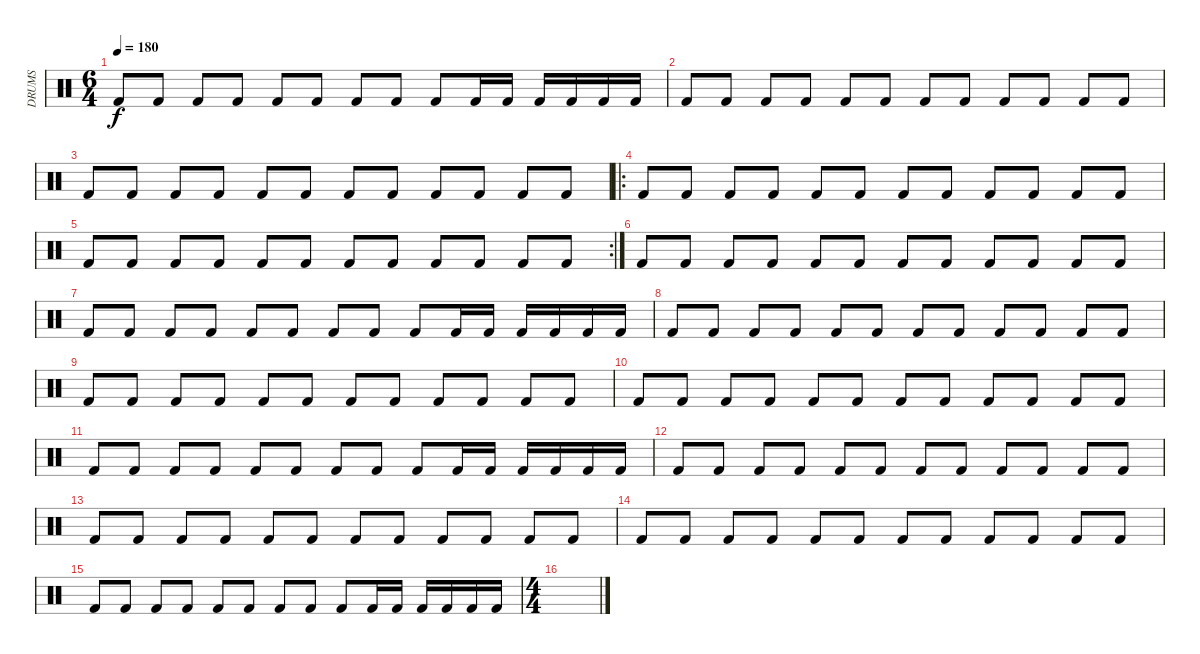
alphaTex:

\track ("DRUMS " "DRUMS ") {instrument percussion}
\staff {score}
\articulation defaults
\ts (6 4)
\tempo 180
\clef neutral
\ks c "Kick (hit) 2".8{dy f} "Kick (hit) 2".8 "Kick (hit) 2".8 "Kick (hit) 2".8 "Kick (hit) 2".8 "Kick (hit) 2".8 "Kick (hit) 2".8 "Kick (hit) 2".8 "Kick (hit) 2".8 "Kick (hit) 2".16 "Kick (hit) 2".16 "Kick (hit) 2".16 "Kick (hit) 2".16 "Kick (hit) 2".16 "Kick (hit) 2".16
|
"Kick (hit) 2".8 "Kick (hit) 2".8 "Kick (hit) 2".8 "Kick (hit) 2".8 "Kick (hit) 2".8 "Kick (hit) 2".8 "Kick (hit) 2".8 "Kick (hit) 2".8 "Kick (hit) 2".8 "Kick (hit) 2".8 "Kick (hit) 2".8 "Kick (hit) 2".8 |
"Kick (hit) 2".8 "Kick (hit) 2".8 "Kick (hit) 2".8 "Kick (hit) 2".8 "Kick (hit) 2".8 "Kick (hit) 2".8 "Kick (hit) 2".8 "Kick (hit) 2".8 "Kick (hit) 2".8 "Kick (hit) 2".8 "Kick (hit) 2".8 "Kick (hit) 2".8 |
\ro "Kick (hit) 2".8 "Kick (hit) 2".8 "Kick (hit) 2".8 "Kick (hit) 2".8 "Kick (hit) 2".8 "Kick (hit) 2".8 "Kick (hit) 2".8 "Kick (hit) 2".8 "Kick (hit) 2".8 "Kick (hit) 2".8 "Kick (hit) 2".8 "Kick (hit) 2".8
|
\rc 2 "Kick (hit) 2".8 "Kick (hit) 2".8 "Kick (hit) 2".8 "Kick (hit) 2".8 "Kick (hit) 2".8 "Kick (hit) 2".8 "Kick (hit) 2".8 "Kick (hit) 2".8 "Kick (hit) 2".8 "Kick (hit) 2".8 "Kick (hit) 2".8 "Kick (hit) 2".8
|
"Kick (hit) 2".8 "Kick (hit) 2".8 "Kick (hit) 2".8 "Kick (hit) 2".8 "Kick (hit) 2".8 "Kick (hit) 2".8 "Kick (hit) 2".8 "Kick (hit) 2".8 "Kick (hit) 2".8 "Kick (hit) 2".8 "Kick (hit) 2".8 "Kick (hit) 2".8 |
"Kick (hit) 2".8 "Kick (hit) 2".8 "Kick (hit) 2".8 "Kick (hit) 2".8 "Kick (hit) 2".8 "Kick (hit) 2".8 "Kick (hit) 2".8 "Kick (hit) 2".8 "Kick (hit) 2".8 "Kick (hit) 2".16 "Kick (hit) 2".16 "Kick (hit) 2".16 "Kick (hit) 2".16 "Kick (hit) 2".16 "Kick (hit) 2".16 |
"Kick (hit) 2".8 "Kick (hit) 2".8 "Kick (hit) 2".8 "Kick (hit) 2".8 "Kick (hit) 2".8 "Kick (hit) 2".8 "Kick (hit) 2".8 "Kick (hit) 2".8 "Kick (hit) 2".8 "Kick (hit) 2".8 "Kick (hit) 2".8 "Kick (hit) 2".8 |
"Kick (hit) 2".8 "Kick (hit) 2".8 "Kick (hit) 2".8 "Kick (hit) 2".8 "Kick (hit) 2".8 "Kick (hit) 2".8 "Kick (hit) 2".8 "Kick (hit) 2".8 "Kick (hit) 2".8 "Kick (hit) 2".8 "Kick (hit) 2".8 "Kick (hit) 2".8 |
"Kick (hit) 2".8 "Kick (hit) 2".8 "Kick (hit) 2".8 "Kick (hit) 2".8 "Kick (hit) 2".8 "Kick (hit) 2".8 "Kick (hit) 2".8 "Kick (hit) 2".8 "Kick (hit) 2".8 "Kick (hit) 2".8 "Kick (hit) 2".8 "Kick (hit) 2".8 |
"Kick (hit) 2".8 "Kick (hit) 2".8 "Kick (hit) 2".8 "Kick (hit) 2".8 "Kick (hit) 2".8 "Kick (hit) 2".8 "Kick (hit) 2".8 "Kick (hit) 2".8 "Kick (hit) 2".8 "Kick (hit) 2".16 "Kick (hit) 2".16 "Kick (hit) 2".16 "Kick (hit) 2".16 "Kick (hit) 2".16 "Kick (hit) 2".16 |
"Kick (hit) 2".8 "Kick (hit) 2".8 "Kick (hit) 2".8 "Kick (hit) 2".8 "Kick (hit) 2".8 "Kick (hit) 2".8 "Kick (hit) 2".8 "Kick (hit) 2".8 "Kick (hit) 2".8 "Kick (hit) 2".8 "Kick (hit) 2".8 "Kick (hit) 2".8 |
"Kick (hit) 2".8 "Kick (hit) 2".8 "Kick (hit) 2".8 "Kick (hit) 2".8 "Kick (hit) 2".8 "Kick (hit) 2".8 "Kick (hit) 2".8 "Kick (hit) 2".8 "Kick (hit) 2".8 "Kick (hit) 2".8 "Kick (hit) 2".8 "Kick (hit) 2".8 |
"Kick (hit) 2".8 "Kick (hit) 2".8 "Kick (hit) 2".8 "Kick (hit) 2".8 "Kick (hit) 2".8 "Kick (hit) 2".8 "Kick (hit) 2".8 "Kick (hit) 2".8 "Kick (hit) 2".8 "Kick (hit) 2".8 "Kick (hit) 2".8 "Kick (hit) 2".8 |
"Kick (hit) 2".8 "Kick (hit) 2".8 "Kick (hit) 2".8 "Kick (hit) 2".8 "Kick (hit) 2".8 "Kick (hit) 2".8 "Kick (hit) 2".8 "Kick (hit) 2".8 "Kick (hit) 2".8 "Kick (hit) 2".16 "Kick (hit) 2".16 "Kick (hit) 2".16 "Kick (hit) 2".16 "Kick (hit) 2".16 "Kick (hit) 2".16 |
\ts (4 4)
